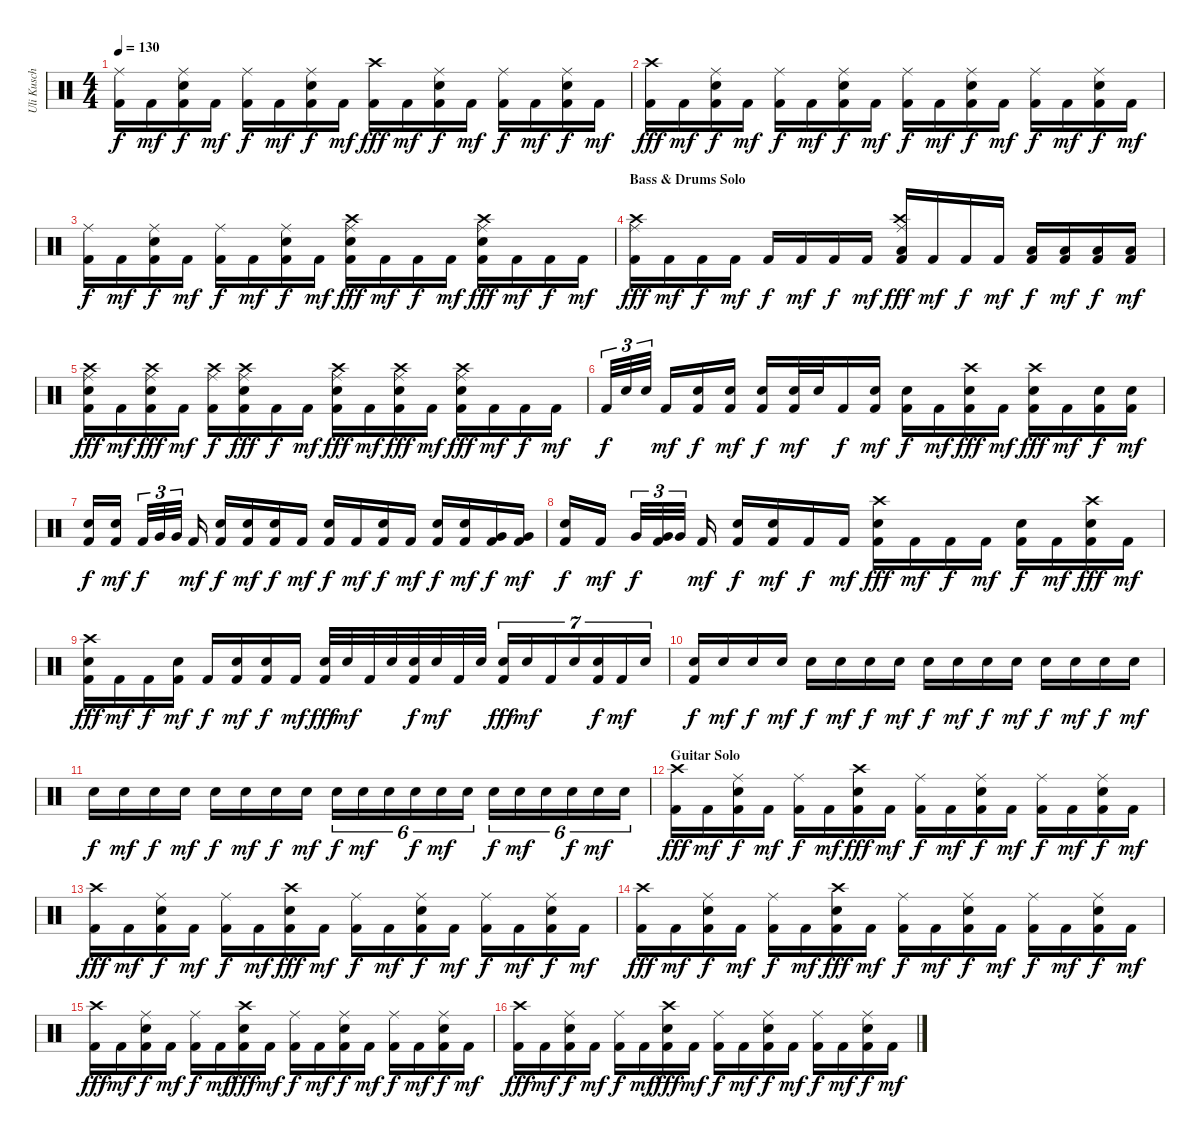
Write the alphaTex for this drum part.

\track ("Uli Kusch" "Uli Kusch") {instrument percussion}
\staff {score}
\articulation defaults
\ts (4 4)
\tempo 130
\clef neutral
\ks c
("Kick (hit) 2" "Ride (middle)").16{dy f} "Kick (hit) 2".16{dy mf} ("Kick (hit) 2" "Electric Snare (hit)" "Ride (middle)").16{dy f} "Kick (hit) 2".16{dy mf} ("Kick (hit) 2" "Ride (middle)").16{dy f} "Kick (hit) 2".16{dy mf} ("Kick (hit) 2" "Electric Snare (hit)" "Ride (middle)").16{dy f} "Kick (hit) 2".16{dy mf} ("Kick (hit) 2" "Crash high (hit)").16{dy fff} "Kick (hit) 2".16{dy mf} ("Kick (hit) 2" "Electric Snare (hit)" "Ride (middle)").16{dy f} "Kick (hit) 2".16{dy mf} ("Kick (hit) 2" "Ride (middle)").16{dy f} "Kick (hit) 2".16{dy mf} ("Kick (hit) 2" "Electric Snare (hit)" "Ride (middle)").16{dy f} "Kick (hit) 2".16{dy mf} |
("Kick (hit) 2" "Crash high (hit)").16{dy fff} "Kick (hit) 2".16{dy mf} ("Kick (hit) 2" "Electric Snare (hit)" "Ride (middle)").16{dy f} "Kick (hit) 2".16{dy mf} ("Kick (hit) 2" "Ride (middle)").16{dy f} "Kick (hit) 2".16{dy mf} ("Kick (hit) 2" "Electric Snare (hit)" "Ride (middle)").16{dy f} "Kick (hit) 2".16{dy mf} ("Kick (hit) 2" "Ride (middle)").16{dy f} "Kick (hit) 2".16{dy mf} ("Kick (hit) 2" "Electric Snare (hit)" "Ride (middle)").16{dy f} "Kick (hit) 2".16{dy mf} ("Kick (hit) 2" "Ride (middle)").16{dy f} "Kick (hit) 2".16{dy mf} ("Kick (hit) 2" "Electric Snare (hit)" "Ride (middle)").16{dy f} "Kick (hit) 2".16{dy mf} |
("Kick (hit) 2" "Ride (middle)").16{dy f} "Kick (hit) 2".16{dy mf} ("Kick (hit) 2" "Electric Snare (hit)" "Ride (middle)").16{dy f} "Kick (hit) 2".16{dy mf} ("Kick (hit) 2" "Ride (middle)").16{dy f} "Kick (hit) 2".16{dy mf} ("Kick (hit) 2" "Electric Snare (hit)" "Ride (middle)").16{dy f} "Kick (hit) 2".16{dy mf} ("Kick (hit) 2" "Electric Snare (hit)" "Ride (middle)" "Crash high (hit)").16{dy fff} "Kick (hit) 2".16{dy mf} "Kick (hit) 2".16{dy f} "Kick (hit) 2".16{dy mf} ("Kick (hit) 2" "Electric Snare (hit)" "Ride (middle)" "Crash high (hit)").16{dy fff} "Kick (hit) 2".16{dy mf} "Kick (hit) 2".16{dy f} "Kick (hit) 2".16{dy mf} |
\section ("" "Bass & Drums Solo")
("Kick (hit) 2" "Crash high (hit)" "Ride (middle)").16{dy fff} "Kick (hit) 2".16{dy mf} "Kick (hit) 2".16{dy f} "Kick (hit) 2".16{dy mf} "Kick (hit) 2".16{dy f} "Kick (hit) 2".16{dy mf} "Kick (hit) 2".16{dy f} "Kick (hit) 2".16{dy mf} ("Kick (hit) 2" "Ride (middle)" "Low Floor Tom (hit)" "Crash high (hit)").16{dy fff} "Kick (hit) 2".16{dy mf} "Kick (hit) 2".16{dy f} "Kick (hit) 2".16{dy mf} ("Kick (hit) 2" "Low Floor Tom (hit)").16{dy f} ("Kick (hit) 2" "Low Floor Tom (hit)").16{dy mf} ("Kick (hit) 2" "Low Floor Tom (hit)").16{dy f} ("Kick (hit) 2" "Low Floor Tom (hit)").16{dy mf} |
("Kick (hit) 2" "Electric Snare (hit)" "Ride (middle)" "Crash high (hit)").16{dy fff} "Kick (hit) 2".16{dy mf} ("Kick (hit) 2" "Electric Snare (hit)" "Ride (middle)" "Crash high (hit)").16{dy fff} "Kick (hit) 2".16{dy mf} ("Kick (hit) 2" "Ride (middle)" "Crash high (hit)").16{dy f} ("Kick (hit) 2" "Electric Snare (hit)" "Ride (middle)" "Crash high (hit)").16{dy fff} "Kick (hit) 2".16{dy f} "Kick (hit) 2".16{dy mf} ("Kick (hit) 2" "Electric Snare (hit)" "Ride (middle)" "Crash high (hit)").16{dy fff} "Kick (hit) 2".16{dy mf} ("Kick (hit) 2" "Electric Snare (hit)" "Ride (middle)" "Crash high (hit)").16{dy fff} "Kick (hit) 2".16{dy mf} ("Kick (hit) 2" "Electric Snare (hit)" "Ride (middle)" "Crash high (hit)").16{dy fff} "Kick (hit) 2".16{dy mf} "Kick (hit) 2".16{dy f} "Kick (hit) 2".16{dy mf} |
"Kick (hit) 2".32{tu (3 2) dy f} "Electric Snare (hit)".32{tu (3 2)} "Electric Snare (hit)".32{tu (3 2)} "Kick (hit) 2".16{dy mf} ("Kick (hit) 2" "Snare (hit) 2").16{dy f} ("Kick (hit) 2" "Snare (hit) 2").16{dy mf} ("Kick (hit) 2" "Snare (hit) 2").16{dy f} ("Kick (hit) 2" "Electric Snare (hit)").32{dy mf} "Electric Snare (hit)".32 "Kick (hit) 2".16{dy f} ("Kick (hit) 2" "Electric Snare (hit)").16{dy mf} ("Kick (hit) 2" "Snare (hit) 2").16{dy f} "Kick (hit) 2".16{dy mf} ("Kick (hit) 2" "Electric Snare (hit)" "Crash high (hit)").16{dy fff} "Kick (hit) 2".16{dy mf} ("Kick (hit) 2" "Electric Snare (hit)" "Crash high (hit)").16{dy fff} "Kick (hit) 2".16{dy mf} ("Kick (hit) 2" "Snare (hit) 2").16{dy f} ("Kick (hit) 2" "Snare (hit) 2").16{dy mf} |
("Kick (hit) 2" "Snare (hit) 2").16{dy f} ("Kick (hit) 2" "Snare (hit) 2").16{dy mf} "Kick (hit) 2".32{tu (3 2) dy f} "Very Low Tom (hit)".32{tu (3 2)} "Very Low Tom (hit)".32{tu (3 2)} "Kick (hit) 2".16{dy mf} ("Kick (hit) 2" "Snare (hit) 2").16{dy f} ("Kick (hit) 2" "Electric Snare (hit)").16{dy mf} ("Kick (hit) 2" "Electric Snare (hit)").16{dy f} "Kick (hit) 2".16{dy mf} ("Kick (hit) 2" "Snare (hit) 2").16{dy f} "Kick (hit) 2".16{dy mf} ("Kick (hit) 2" "Snare (hit) 2").16{dy f} "Kick (hit) 2".16{dy mf} ("Kick (hit) 2" "Snare (hit) 2").16{dy f} ("Kick (hit) 2" "Snare (hit) 2").16{dy mf} ("Kick (hit) 2" "Very Low Tom (hit)").16{dy f} ("Kick (hit) 2" "Very Low Tom (hit)").16{dy mf} |
("Kick (hit) 2" "Snare (hit) 2").16{dy f} "Kick (hit) 2".16{dy mf} "Very Low Tom (hit)".32{tu (3 2) dy f} ("Very Low Tom (hit)" "Kick (hit) 2").32{tu (3 2)} "Very Low Tom (hit)".32{tu (3 2)} "Kick (hit) 2".16{dy mf} ("Kick (hit) 2" "Snare (hit) 2").16{dy f} ("Kick (hit) 2" "Electric Snare (hit)").16{dy mf} "Kick (hit) 2".16{dy f} "Kick (hit) 2".16{dy mf} ("Kick (hit) 2" "Electric Snare (hit)" "Crash high (hit)").16{dy fff} "Kick (hit) 2".16{dy mf} "Kick (hit) 2".16{dy f} "Kick (hit) 2".16{dy mf} ("Kick (hit) 2" "Snare (hit) 2").16{dy f} "Kick (hit) 2".16{dy mf} ("Kick (hit) 2" "Electric Snare (hit)" "Crash high (hit)").16{dy fff} "Kick (hit) 2".16{dy mf} |
("Kick (hit) 2" "Electric Snare (hit)" "Crash high (hit)").16{dy fff} "Kick (hit) 2".16{dy mf} "Kick (hit) 2".16{dy f} ("Kick (hit) 2" "Electric Snare (hit)").16{dy mf} "Kick (hit) 2".16{dy f} ("Kick (hit) 2" "Electric Snare (hit)").16{dy mf} ("Kick (hit) 2" "Electric Snare (hit)").16{dy f} "Kick (hit) 2".16{dy mf} ("Kick (hit) 2" "Electric Snare (hit)").32{dy fff} "Electric Snare (hit)".32{dy mf} "Kick (hit) 2".32 "Electric Snare (hit)".32 ("Kick (hit) 2" "Electric Snare (hit)").32{dy f} "Electric Snare (hit)".32{dy mf} "Kick (hit) 2".32 "Electric Snare (hit)".32 ("Kick (hit) 2" "Electric Snare (hit)").16{tu (7 4) dy fff} "Electric Snare (hit)".16{tu (7 4) dy mf} "Kick (hit) 2".16{tu (7 4)} "Electric Snare (hit)".16{tu (7 4)} ("Kick (hit) 2" "Electric Snare (hit)").16{tu (7 4) dy f} "Kick (hit) 2".16{tu (7 4) dy mf} "Electric Snare (hit)".16{tu (7 4)} |
("Electric Snare (hit)" "Kick (hit) 2").16{dy f} "Electric Snare (hit)".16{dy mf} "Electric Snare (hit)".16{dy f} "Electric Snare (hit)".16{dy mf} "Electric Snare (hit)".16{dy f} "Electric Snare (hit)".16{dy mf} "Electric Snare (hit)".16{dy f} "Electric Snare (hit)".16{dy mf} "Electric Snare (hit)".16{dy f} "Electric Snare (hit)".16{dy mf} "Electric Snare (hit)".16{dy f} "Electric Snare (hit)".16{dy mf} "Electric Snare (hit)".16{dy f} "Electric Snare (hit)".16{dy mf} "Electric Snare (hit)".16{dy f} "Electric Snare (hit)".16{dy mf} |
"Electric Snare (hit)".16{dy f} "Electric Snare (hit)".16{dy mf} "Electric Snare (hit)".16{dy f} "Electric Snare (hit)".16{dy mf} "Electric Snare (hit)".16{dy f} "Electric Snare (hit)".16{dy mf} "Electric Snare (hit)".16{dy f} "Electric Snare (hit)".16{dy mf} "Electric Snare (hit)".16{tu (6 4) dy f} "Electric Snare (hit)".16{tu (6 4) dy mf} "Electric Snare (hit)".16{tu (6 4)} "Electric Snare (hit)".16{tu (6 4) dy f} "Electric Snare (hit)".16{tu (6 4) dy mf} "Electric Snare (hit)".16{tu (6 4)} "Electric Snare (hit)".16{tu (6 4) dy f} "Electric Snare (hit)".16{tu (6 4) dy mf} "Electric Snare (hit)".16{tu (6 4)} "Electric Snare (hit)".16{tu (6 4) dy f} "Electric Snare (hit)".16{tu (6 4) dy mf} "Electric Snare (hit)".16{tu (6 4)} |
\section ("" "Guitar Solo")
("Kick (hit) 2" "Crash high (hit)").16{dy fff} "Kick (hit) 2".16{dy mf} ("Kick (hit) 2" "Electric Snare (hit)" "Ride (middle)").16{dy f} "Kick (hit) 2".16{dy mf} ("Kick (hit) 2" "Ride (middle)").16{dy f} "Kick (hit) 2".16{dy mf} ("Kick (hit) 2" "Electric Snare (hit)" "Crash high (hit)").16{dy fff} "Kick (hit) 2".16{dy mf} ("Kick (hit) 2" "Ride (middle)").16{dy f} "Kick (hit) 2".16{dy mf} ("Kick (hit) 2" "Electric Snare (hit)" "Ride (middle)").16{dy f} "Kick (hit) 2".16{dy mf} ("Kick (hit) 2" "Ride (middle)").16{dy f} "Kick (hit) 2".16{dy mf} ("Kick (hit) 2" "Electric Snare (hit)" "Ride (middle)").16{dy f} "Kick (hit) 2".16{dy mf} |
("Kick (hit) 2" "Crash high (hit)").16{dy fff} "Kick (hit) 2".16{dy mf} ("Kick (hit) 2" "Electric Snare (hit)" "Ride (middle)").16{dy f} "Kick (hit) 2".16{dy mf} ("Kick (hit) 2" "Ride (middle)").16{dy f} "Kick (hit) 2".16{dy mf} ("Kick (hit) 2" "Electric Snare (hit)" "Crash high (hit)").16{dy fff} "Kick (hit) 2".16{dy mf} ("Kick (hit) 2" "Ride (middle)").16{dy f} "Kick (hit) 2".16{dy mf} ("Kick (hit) 2" "Electric Snare (hit)" "Ride (middle)").16{dy f} "Kick (hit) 2".16{dy mf} ("Kick (hit) 2" "Ride (middle)").16{dy f} "Kick (hit) 2".16{dy mf} ("Kick (hit) 2" "Electric Snare (hit)" "Ride (middle)").16{dy f} "Kick (hit) 2".16{dy mf} |
("Kick (hit) 2" "Crash high (hit)").16{dy fff} "Kick (hit) 2".16{dy mf} ("Kick (hit) 2" "Electric Snare (hit)" "Ride (middle)").16{dy f} "Kick (hit) 2".16{dy mf} ("Kick (hit) 2" "Ride (middle)").16{dy f} "Kick (hit) 2".16{dy mf} ("Kick (hit) 2" "Electric Snare (hit)" "Crash high (hit)").16{dy fff} "Kick (hit) 2".16{dy mf} ("Kick (hit) 2" "Ride (middle)").16{dy f} "Kick (hit) 2".16{dy mf} ("Kick (hit) 2" "Electric Snare (hit)" "Ride (middle)").16{dy f} "Kick (hit) 2".16{dy mf} ("Kick (hit) 2" "Ride (middle)").16{dy f} "Kick (hit) 2".16{dy mf} ("Kick (hit) 2" "Electric Snare (hit)" "Ride (middle)").16{dy f} "Kick (hit) 2".16{dy mf} |
("Kick (hit) 2" "Crash high (hit)").16{dy fff} "Kick (hit) 2".16{dy mf} ("Kick (hit) 2" "Electric Snare (hit)" "Ride (middle)").16{dy f} "Kick (hit) 2".16{dy mf} ("Kick (hit) 2" "Ride (middle)").16{dy f} "Kick (hit) 2".16{dy mf} ("Kick (hit) 2" "Electric Snare (hit)" "Crash high (hit)").16{dy fff} "Kick (hit) 2".16{dy mf} ("Kick (hit) 2" "Ride (middle)").16{dy f} "Kick (hit) 2".16{dy mf} ("Kick (hit) 2" "Electric Snare (hit)" "Ride (middle)").16{dy f} "Kick (hit) 2".16{dy mf} ("Kick (hit) 2" "Ride (middle)").16{dy f} "Kick (hit) 2".16{dy mf} ("Kick (hit) 2" "Electric Snare (hit)" "Ride (middle)").16{dy f} "Kick (hit) 2".16{dy mf} |
("Kick (hit) 2" "Crash high (hit)").16{dy fff} "Kick (hit) 2".16{dy mf} ("Kick (hit) 2" "Electric Snare (hit)" "Ride (middle)").16{dy f} "Kick (hit) 2".16{dy mf} ("Kick (hit) 2" "Ride (middle)").16{dy f} "Kick (hit) 2".16{dy mf} ("Kick (hit) 2" "Electric Snare (hit)" "Crash high (hit)").16{dy fff} "Kick (hit) 2".16{dy mf} ("Kick (hit) 2" "Ride (middle)").16{dy f} "Kick (hit) 2".16{dy mf} ("Kick (hit) 2" "Electric Snare (hit)" "Ride (middle)").16{dy f} "Kick (hit) 2".16{dy mf} ("Kick (hit) 2" "Ride (middle)").16{dy f} "Kick (hit) 2".16{dy mf} ("Kick (hit) 2" "Electric Snare (hit)" "Ride (middle)").16{dy f} "Kick (hit) 2".16{dy mf}
